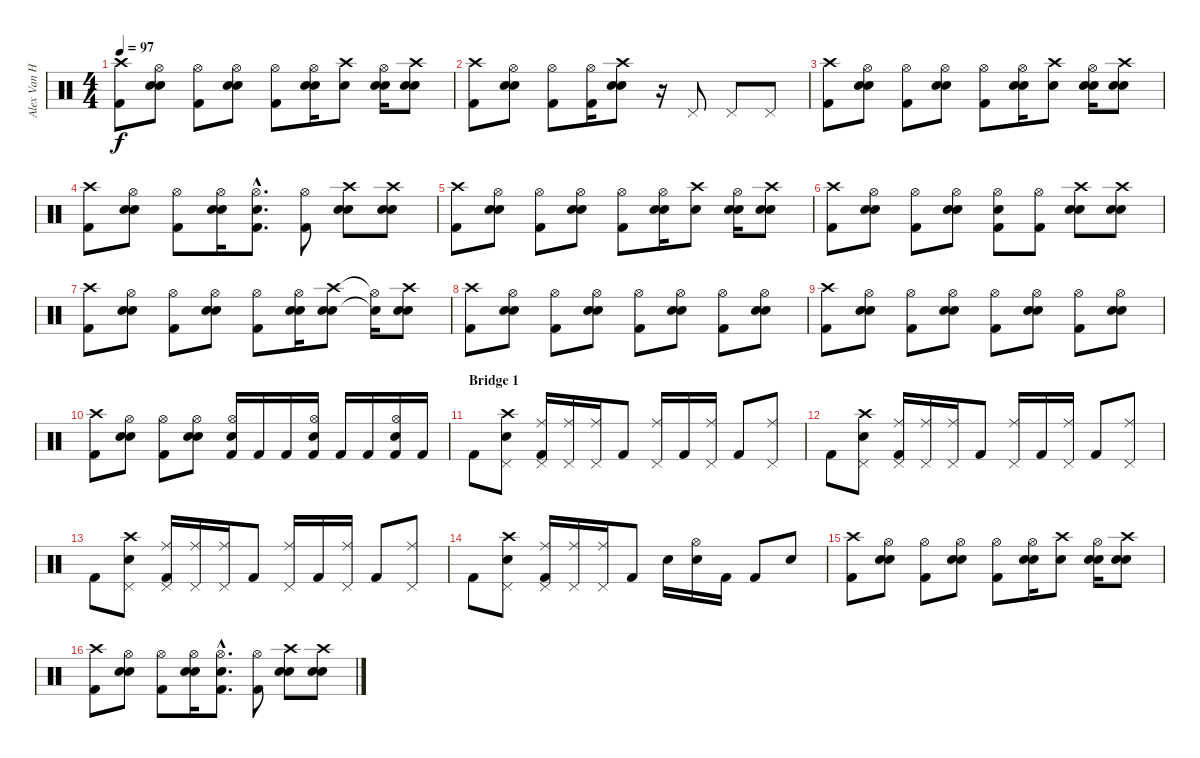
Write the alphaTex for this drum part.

\track ("Alex Van Halen" "Alex Van H") {instrument percussion}
\staff {score}
\articulation defaults
\ts (4 4)
\tempo 97
\clef neutral
\ks c
("Crash high (hit)" "Kick (hit) 2").8{dy f} ("Hi-Hat (open)" "Snare (hit) 2" "Electric Snare (hit)").8 ("Hi-Hat (open)" "Kick (hit) 2").8 ("Hi-Hat (open)" "Snare (hit) 2" "Electric Snare (hit)").8 ("Hi-Hat (open)" "Kick (hit) 2").8 ("Hi-Hat (open)" "Snare (hit) 2" "Electric Snare (hit)").16 ("Crash high (hit)" "Electric Snare (hit)").8 ("Hi-Hat (open)" "Snare (hit) 2" "Electric Snare (hit)").16 ("Crash high (hit)" "Snare (hit) 2" "Electric Snare (hit)").8 |
("Crash high (hit)" "Kick (hit) 2").8 ("Hi-Hat (open)" "Snare (hit) 2" "Electric Snare (hit)").8 ("Hi-Hat (open)" "Kick (hit) 2").8 ("Hi-Hat (open)" "Kick (hit) 2").16 ("Crash high (hit)" "Electric Snare (hit)" "Snare (hit) 2").8 r.16 "Pedal Hi-Hat (hit)".8 "Pedal Hi-Hat (hit)".8 "Pedal Hi-Hat (hit)".8 |
("Crash high (hit)" "Kick (hit) 2").8 ("Hi-Hat (open)" "Snare (hit) 2" "Electric Snare (hit)").8 ("Hi-Hat (open)" "Kick (hit) 2").8 ("Hi-Hat (open)" "Snare (hit) 2" "Electric Snare (hit)").8 ("Hi-Hat (open)" "Kick (hit) 2").8 ("Hi-Hat (open)" "Snare (hit) 2" "Electric Snare (hit)").16 ("Crash high (hit)" "Electric Snare (hit)").8 ("Hi-Hat (open)" "Snare (hit) 2" "Electric Snare (hit)").16 ("Crash high (hit)" "Snare (hit) 2" "Electric Snare (hit)").8 |
("Crash high (hit)" "Kick (hit) 2").8 ("Hi-Hat (open)" "Snare (hit) 2" "Electric Snare (hit)").8 ("Hi-Hat (open)" "Kick (hit) 2").8 ("Hi-Hat (open)" "Snare (hit) 2" "Electric Snare (hit)").16 ("Hi-Hat (open)"{hac} "Electric Snare (hit)"{hac} "Kick (hit) 2"{hac}).8{d} ("Hi-Hat (open)" "Kick (hit) 2").8 ("Crash high (hit)" "Snare (hit) 2" "Electric Snare (hit)").8 ("Crash high (hit)" "Snare (hit) 2" "Electric Snare (hit)").8 |
("Crash high (hit)" "Kick (hit) 2").8 ("Hi-Hat (open)" "Snare (hit) 2" "Electric Snare (hit)").8 ("Hi-Hat (open)" "Kick (hit) 2").8 ("Hi-Hat (open)" "Snare (hit) 2" "Electric Snare (hit)").8 ("Hi-Hat (open)" "Kick (hit) 2").8 ("Hi-Hat (open)" "Snare (hit) 2" "Electric Snare (hit)").16 ("Crash high (hit)" "Electric Snare (hit)").8 ("Hi-Hat (open)" "Snare (hit) 2" "Electric Snare (hit)").16 ("Crash high (hit)" "Snare (hit) 2" "Electric Snare (hit)").8 |
("Crash high (hit)" "Kick (hit) 2").8 ("Hi-Hat (open)" "Snare (hit) 2" "Electric Snare (hit)").8 ("Hi-Hat (open)" "Kick (hit) 2").8 ("Hi-Hat (open)" "Snare (hit) 2" "Electric Snare (hit)").8 ("Hi-Hat (open)" "Electric Snare (hit)" "Kick (hit) 2").8 ("Hi-Hat (open)" "Kick (hit) 2").8 ("Crash high (hit)" "Snare (hit) 2" "Electric Snare (hit)").8 ("Crash high (hit)" "Snare (hit) 2" "Electric Snare (hit)").8 |
("Crash high (hit)" "Kick (hit) 2").8 ("Hi-Hat (open)" "Snare (hit) 2" "Electric Snare (hit)").8 ("Hi-Hat (open)" "Kick (hit) 2").8 ("Hi-Hat (open)" "Snare (hit) 2" "Electric Snare (hit)").8 ("Hi-Hat (open)" "Kick (hit) 2").8 ("Hi-Hat (open)" "Snare (hit) 2" "Electric Snare (hit)").16 ("Crash high (hit)" "Snare (hit) 2" "Electric Snare (hit)").8 ("Hi-Hat (open)"{t} "Electric Snare (hit)"{t}).16 ("Crash high (hit)" "Snare (hit) 2" "Electric Snare (hit)").8 |
("Crash high (hit)" "Kick (hit) 2").8 ("Hi-Hat (open)" "Snare (hit) 2" "Electric Snare (hit)").8 ("Hi-Hat (open)" "Kick (hit) 2").8 ("Hi-Hat (open)" "Snare (hit) 2" "Electric Snare (hit)").8 ("Hi-Hat (open)" "Kick (hit) 2").8 ("Hi-Hat (open)" "Snare (hit) 2" "Electric Snare (hit)").8 ("Hi-Hat (open)" "Kick (hit) 2").8 ("Hi-Hat (open)" "Snare (hit) 2" "Electric Snare (hit)").8 |
("Crash high (hit)" "Kick (hit) 2").8 ("Hi-Hat (open)" "Snare (hit) 2" "Electric Snare (hit)").8 ("Hi-Hat (open)" "Kick (hit) 2").8 ("Hi-Hat (open)" "Snare (hit) 2" "Electric Snare (hit)").8 ("Hi-Hat (open)" "Kick (hit) 2").8 ("Hi-Hat (open)" "Snare (hit) 2" "Electric Snare (hit)").8 ("Hi-Hat (open)" "Kick (hit) 2").8 ("Hi-Hat (open)" "Snare (hit) 2" "Electric Snare (hit)").8 |
("Crash high (hit)" "Kick (hit) 2").8 ("Hi-Hat (open)" "Snare (hit) 2" "Electric Snare (hit)").8 ("Hi-Hat (open)" "Kick (hit) 2").8 ("Hi-Hat (open)" "Snare (hit) 2" "Electric Snare (hit)").8 ("Hi-Hat (open)" "Snare (hit) 2" "Kick (hit) 2").16 "Kick (hit) 2".16 "Kick (hit) 2".16 ("Hi-Hat (open)" "Snare (hit) 2" "Kick (hit) 2").16 "Kick (hit) 2".16 "Kick (hit) 2".16 ("Hi-Hat (open)" "Snare (hit) 2" "Kick (hit) 2").16 "Kick (hit) 2".16 |
\section ("" "Bridge 1")
"Kick (hit) 2".8 ("Crash high (hit)" "Pedal Hi-Hat (hit)" "Snare (hit) 2").8 ("Ride (middle)" "Pedal Hi-Hat (hit)" "Kick (hit) 2").16 ("Ride (middle)" "Pedal Hi-Hat (hit)").16 ("Ride (middle)" "Pedal Hi-Hat (hit)").16 "Kick (hit) 2".8 ("Ride (middle)" "Pedal Hi-Hat (hit)").16 "Kick (hit) 2".16 ("Ride (middle)" "Pedal Hi-Hat (hit)").16 "Kick (hit) 2".8 ("Ride (middle)" "Pedal Hi-Hat (hit)").8 |
"Kick (hit) 2".8 ("Crash high (hit)" "Pedal Hi-Hat (hit)" "Snare (hit) 2").8 ("Ride (middle)" "Pedal Hi-Hat (hit)" "Kick (hit) 2").16 ("Ride (middle)" "Pedal Hi-Hat (hit)").16 ("Ride (middle)" "Pedal Hi-Hat (hit)").16 "Kick (hit) 2".8 ("Ride (middle)" "Pedal Hi-Hat (hit)").16 "Kick (hit) 2".16 ("Ride (middle)" "Pedal Hi-Hat (hit)").16 "Kick (hit) 2".8 ("Ride (middle)" "Pedal Hi-Hat (hit)").8 |
"Kick (hit) 2".8 ("Crash high (hit)" "Pedal Hi-Hat (hit)" "Snare (hit) 2").8 ("Ride (middle)" "Pedal Hi-Hat (hit)" "Kick (hit) 2").16 ("Ride (middle)" "Pedal Hi-Hat (hit)").16 ("Ride (middle)" "Pedal Hi-Hat (hit)").16 "Kick (hit) 2".8 ("Ride (middle)" "Pedal Hi-Hat (hit)").16 "Kick (hit) 2".16 ("Ride (middle)" "Pedal Hi-Hat (hit)").16 "Kick (hit) 2".8 ("Ride (middle)" "Pedal Hi-Hat (hit)").8 |
"Kick (hit) 2".8 ("Crash high (hit)" "Pedal Hi-Hat (hit)" "Snare (hit) 2").8 ("Ride (middle)" "Pedal Hi-Hat (hit)" "Kick (hit) 2").16 ("Ride (middle)" "Pedal Hi-Hat (hit)").16 ("Ride (middle)" "Pedal Hi-Hat (hit)").16 "Kick (hit) 2".8 "Electric Snare (hit)".16 ("Hi-Hat (open)" "Electric Snare (hit)").16 "Kick (hit) 2".16 "Kick (hit) 2".8 "Snare (hit) 2".8 |
("Crash high (hit)" "Kick (hit) 2").8 ("Hi-Hat (open)" "Snare (hit) 2" "Electric Snare (hit)").8 ("Hi-Hat (open)" "Kick (hit) 2").8 ("Hi-Hat (open)" "Snare (hit) 2" "Electric Snare (hit)").8 ("Hi-Hat (open)" "Kick (hit) 2").8 ("Hi-Hat (open)" "Snare (hit) 2" "Electric Snare (hit)").16 ("Crash high (hit)" "Electric Snare (hit)").8 ("Hi-Hat (open)" "Snare (hit) 2" "Electric Snare (hit)").16 ("Crash high (hit)" "Snare (hit) 2" "Electric Snare (hit)").8 |
("Crash high (hit)" "Kick (hit) 2").8 ("Hi-Hat (open)" "Snare (hit) 2" "Electric Snare (hit)").8 ("Hi-Hat (open)" "Kick (hit) 2").8 ("Hi-Hat (open)" "Snare (hit) 2" "Electric Snare (hit)").16 ("Hi-Hat (open)"{hac} "Electric Snare (hit)"{hac} "Kick (hit) 2"{hac}).8{d} ("Hi-Hat (open)" "Kick (hit) 2").8 ("Crash high (hit)" "Snare (hit) 2" "Electric Snare (hit)").8 ("Crash high (hit)" "Snare (hit) 2" "Electric Snare (hit)").8
